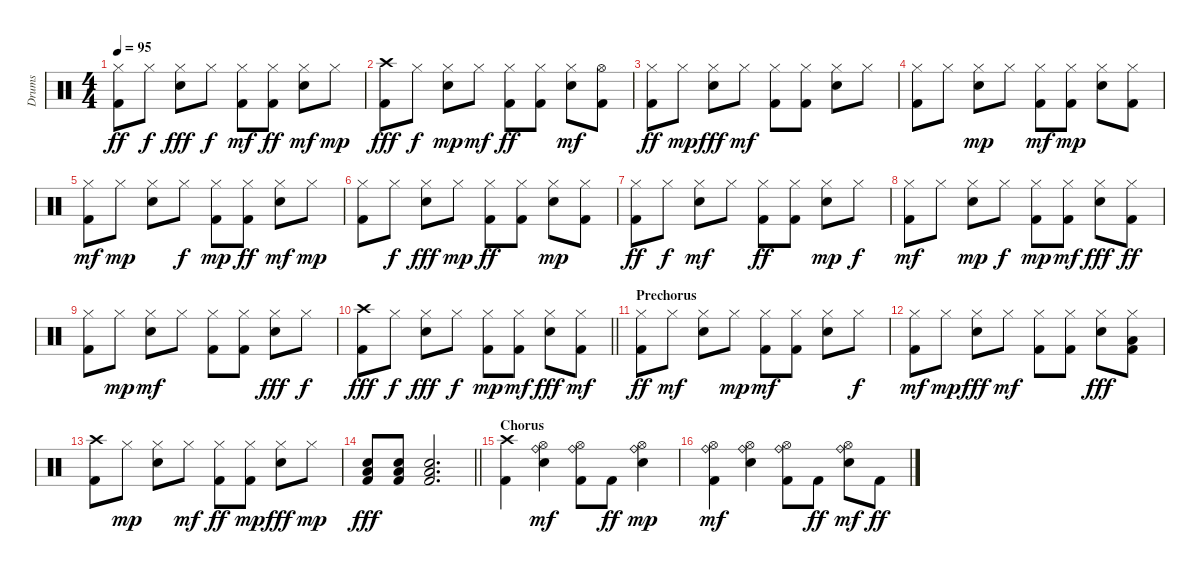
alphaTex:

\track ("Drums" "Drums") {instrument percussion}
\staff {score}
\articulation defaults
\ts (4 4)
\tempo 95
\clef neutral
\ks c
("Kick (hit) 2" "Hi-Hat (closed)").8{dy ff} "Hi-Hat (closed)".8{dy f} ("Electric Snare (hit)" "Hi-Hat (closed)").8{dy fff} "Hi-Hat (closed)".8{dy f} ("Kick (hit) 2" "Hi-Hat (closed)").8{dy mf} ("Kick (hit) 2" "Hi-Hat (closed)").8{dy ff} ("Electric Snare (hit)" "Hi-Hat (closed)").8{dy mf} "Hi-Hat (closed)".8{dy mp} |
("Kick (hit) 2" "Crash high (hit)").8{dy fff} "Hi-Hat (closed)".8{dy f} ("Electric Snare (hit)" "Hi-Hat (closed)").8{dy mp} "Hi-Hat (closed)".8{dy mf} ("Kick (hit) 2" "Hi-Hat (closed)").8{dy ff} ("Kick (hit) 2" "Hi-Hat (closed)").8 ("Electric Snare (hit)" "Hi-Hat (closed)").8{dy mf} ("Kick (hit) 2" "Hi-Hat (open)").8 |
("Kick (hit) 2" "Hi-Hat (closed)").8{dy ff} "Hi-Hat (closed)".8{dy mp} ("Electric Snare (hit)" "Hi-Hat (closed)").8{dy fff} "Hi-Hat (closed)".8{dy mf} ("Kick (hit) 2" "Hi-Hat (closed)").8 ("Kick (hit) 2" "Hi-Hat (closed)").8 ("Electric Snare (hit)" "Hi-Hat (closed)").8 "Hi-Hat (closed)".8 |
("Kick (hit) 2" "Hi-Hat (closed)").8 "Hi-Hat (closed)".8 ("Electric Snare (hit)" "Hi-Hat (closed)").8{dy mp} "Hi-Hat (closed)".8 ("Kick (hit) 2" "Hi-Hat (closed)").8{dy mf} ("Kick (hit) 2" "Hi-Hat (closed)").8{dy mp} ("Electric Snare (hit)" "Hi-Hat (closed)").8 ("Kick (hit) 2" "Hi-Hat (closed)").8 |
("Kick (hit) 2" "Hi-Hat (closed)").8{dy mf} "Hi-Hat (closed)".8{dy mp} ("Electric Snare (hit)" "Hi-Hat (closed)").8 "Hi-Hat (closed)".8{dy f} ("Kick (hit) 2" "Hi-Hat (closed)").8{dy mp} ("Kick (hit) 2" "Hi-Hat (closed)").8{dy ff} ("Electric Snare (hit)" "Hi-Hat (closed)").8{dy mf} "Hi-Hat (closed)".8{dy mp} |
("Kick (hit) 2" "Hi-Hat (closed)").8 "Hi-Hat (closed)".8{dy f} ("Electric Snare (hit)" "Hi-Hat (closed)").8{dy fff} "Hi-Hat (closed)".8{dy mp} ("Kick (hit) 2" "Hi-Hat (closed)").8{dy ff} ("Kick (hit) 2" "Hi-Hat (closed)").8 ("Electric Snare (hit)" "Hi-Hat (closed)").8{dy mp} ("Kick (hit) 2" "Hi-Hat (closed)").8 |
("Kick (hit) 2" "Hi-Hat (closed)").8{dy ff} "Hi-Hat (closed)".8{dy f} ("Electric Snare (hit)" "Hi-Hat (closed)").8{dy mf} "Hi-Hat (closed)".8 ("Kick (hit) 2" "Hi-Hat (closed)").8{dy ff} ("Kick (hit) 2" "Hi-Hat (closed)").8 ("Electric Snare (hit)" "Hi-Hat (closed)").8{dy mp} "Hi-Hat (closed)".8{dy f} |
("Kick (hit) 2" "Hi-Hat (closed)").8{dy mf} "Hi-Hat (closed)".8 ("Electric Snare (hit)" "Hi-Hat (closed)").8{dy mp} "Hi-Hat (closed)".8{dy f} ("Kick (hit) 2" "Hi-Hat (closed)").8{dy mp} ("Kick (hit) 2" "Hi-Hat (closed)").8{dy mf} ("Electric Snare (hit)" "Hi-Hat (closed)").8{dy fff} ("Kick (hit) 2" "Hi-Hat (closed)").8{dy ff} |
("Kick (hit) 2" "Hi-Hat (closed)").8 "Hi-Hat (closed)".8{dy mp} ("Electric Snare (hit)" "Hi-Hat (closed)").8{dy mf} "Hi-Hat (closed)".8 ("Kick (hit) 2" "Hi-Hat (closed)").8 ("Kick (hit) 2" "Hi-Hat (closed)").8 ("Electric Snare (hit)" "Hi-Hat (closed)").8{dy fff} "Hi-Hat (closed)".8{dy f} |
\barLineRight lightlight
("Kick (hit) 2" "Crash high (hit)").8{dy fff} "Hi-Hat (closed)".8{dy f} ("Electric Snare (hit)" "Hi-Hat (closed)").8{dy fff} "Hi-Hat (closed)".8{dy f} ("Kick (hit) 2" "Hi-Hat (closed)").8{dy mp} ("Kick (hit) 2" "Hi-Hat (closed)").8{dy mf} ("Electric Snare (hit)" "Hi-Hat (closed)").8{dy fff} ("Kick (hit) 2" "Hi-Hat (closed)").8{dy mf} |
\section ("" "Prechorus")
("Kick (hit) 2" "Hi-Hat (closed)").8{dy ff} "Hi-Hat (closed)".8{dy mf} ("Electric Snare (hit)" "Hi-Hat (closed)").8 "Hi-Hat (closed)".8{dy mp} ("Kick (hit) 2" "Hi-Hat (closed)").8{dy mf} ("Kick (hit) 2" "Hi-Hat (closed)").8 ("Electric Snare (hit)" "Hi-Hat (closed)").8 "Hi-Hat (closed)".8{dy f} |
("Kick (hit) 2" "Hi-Hat (closed)").8{dy mf} "Hi-Hat (closed)".8{dy mp} ("Electric Snare (hit)" "Hi-Hat (closed)").8{dy fff} "Hi-Hat (closed)".8{dy mf} ("Kick (hit) 2" "Hi-Hat (closed)").8 ("Kick (hit) 2" "Hi-Hat (closed)").8 ("Electric Snare (hit)" "Hi-Hat (closed)").8{dy fff} ("Kick (hit) 2" "Hi-Hat (closed)" "Low Tom (hit)").8 |
("Kick (hit) 2" "Crash high (hit)").8 "Hi-Hat (closed)".8{dy mp} ("Electric Snare (hit)" "Hi-Hat (closed)").8 "Hi-Hat (closed)".8{dy mf} ("Kick (hit) 2" "Hi-Hat (closed)").8{dy ff} ("Kick (hit) 2" "Hi-Hat (closed)").8{dy mp} ("Electric Snare (hit)" "Hi-Hat (closed)").8{dy fff} "Hi-Hat (closed)".8{dy mp} |
\barLineRight lightlight
("Kick (hit) 2" "Electric Snare (hit)" "Low Floor Tom (hit)").8{dy fff} ("Kick (hit) 2" "Electric Snare (hit)" "Low Floor Tom (hit)").8 ("Kick (hit) 2" "Electric Snare (hit)" "Low Floor Tom (hit)").2{d} |
\section ("" "Chorus")
("Kick (hit) 2" "Crash high (hit)").4 ("Electric Snare (hit)" "Hi-Hat (open)" "Ride (bell)").4{dy mf} ("Kick (hit) 2" "Hi-Hat (open)" "Ride (bell)").8 "Kick (hit) 2".8{dy ff} ("Electric Snare (hit)" "Hi-Hat (open)" "Ride (bell)").4{dy mp} |
("Kick (hit) 2" "Hi-Hat (open)" "Ride (bell)").4{dy mf} ("Electric Snare (hit)" "Hi-Hat (open)" "Ride (bell)").4 ("Kick (hit) 2" "Hi-Hat (open)" "Ride (bell)").8 "Kick (hit) 2".8{dy ff} ("Electric Snare (hit)" "Hi-Hat (open)" "Ride (bell)").8{dy mf} "Kick (hit) 2".8{dy ff}
